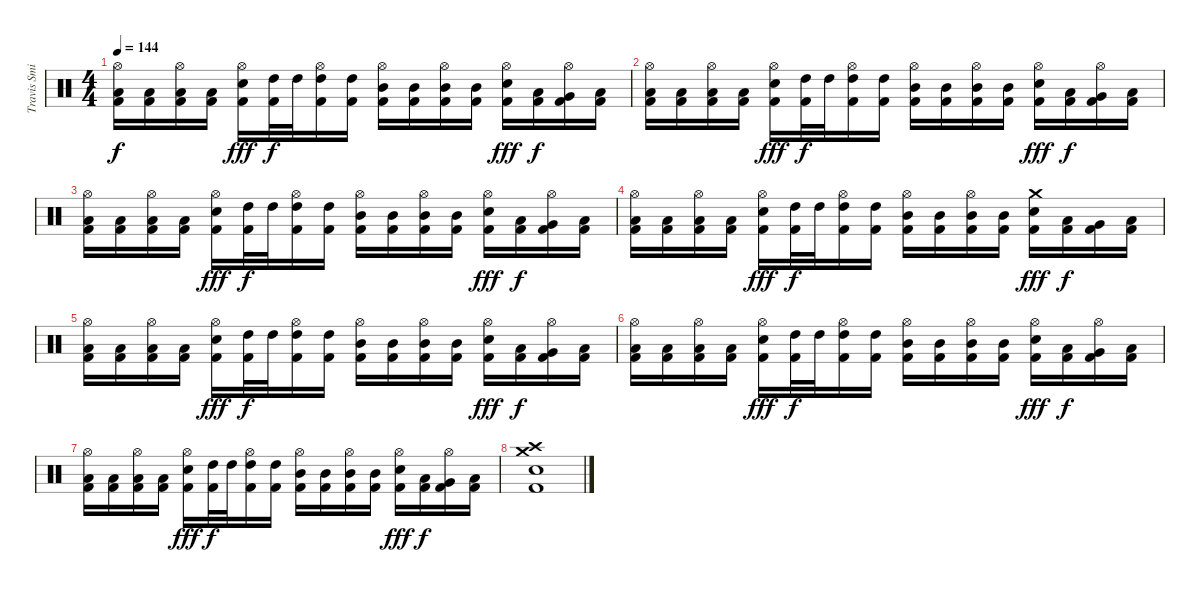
\track ("Travis Smith" "Travis Smi") {instrument percussion}
\staff {score}
\articulation defaults
\ts (4 4)
\tempo 144
\clef neutral
\ks c
("Hi-Hat (open)" "Low Tom (hit)" "Kick (hit) 2").16{dy f} ("Low Tom (hit)" "Kick (hit) 2").16 ("Hi-Hat (open)" "Low Tom (hit)" "Kick (hit) 2").16 ("Low Tom (hit)" "Kick (hit) 2").16 ("Hi-Hat (open)" "Electric Snare (hit)" "Kick (hit) 2").16{dy fff} ("High Tom (hit)" "Kick (hit) 2").32{dy f} "High Tom (hit)".32 ("Hi-Hat (open)" "High Tom (hit)" "Kick (hit) 2").16 ("High Tom (hit)" "Kick (hit) 2").16 ("Hi-Hat (open)" "Mid Tom (hit)" "Kick (hit) 2").16 ("Mid Tom (hit)" "Kick (hit) 2").16 ("Hi-Hat (open)" "Mid Tom (hit)" "Kick (hit) 2").16 ("Mid Tom (hit)" "Kick (hit) 2").16 ("Hi-Hat (open)" "Electric Snare (hit)" "Kick (hit) 2").16{dy fff} ("Low Tom (hit)" "Kick (hit) 2").16{dy f} ("Hi-Hat (open)" "Very Low Tom (hit)" "Kick (hit) 2").16 ("Low Floor Tom (hit)" "Kick (hit) 2").16 |
("Hi-Hat (open)" "Low Tom (hit)" "Kick (hit) 2").16 ("Low Tom (hit)" "Kick (hit) 2").16 ("Hi-Hat (open)" "Low Tom (hit)" "Kick (hit) 2").16 ("Low Tom (hit)" "Kick (hit) 2").16 ("Hi-Hat (open)" "Electric Snare (hit)" "Kick (hit) 2").16{dy fff} ("High Tom (hit)" "Kick (hit) 2").32{dy f} "High Tom (hit)".32 ("Hi-Hat (open)" "High Tom (hit)" "Kick (hit) 2").16 ("High Tom (hit)" "Kick (hit) 2").16 ("Hi-Hat (open)" "Mid Tom (hit)" "Kick (hit) 2").16 ("Mid Tom (hit)" "Kick (hit) 2").16 ("Hi-Hat (open)" "Mid Tom (hit)" "Kick (hit) 2").16 ("Mid Tom (hit)" "Kick (hit) 2").16 ("Hi-Hat (open)" "Electric Snare (hit)" "Kick (hit) 2").16{dy fff} ("Low Tom (hit)" "Kick (hit) 2").16{dy f} ("Hi-Hat (open)" "Very Low Tom (hit)" "Kick (hit) 2").16 ("Low Floor Tom (hit)" "Kick (hit) 2").16 |
("Hi-Hat (open)" "Low Tom (hit)" "Kick (hit) 2").16 ("Low Tom (hit)" "Kick (hit) 2").16 ("Hi-Hat (open)" "Low Tom (hit)" "Kick (hit) 2").16 ("Low Tom (hit)" "Kick (hit) 2").16 ("Hi-Hat (open)" "Electric Snare (hit)" "Kick (hit) 2").16{dy fff} ("High Tom (hit)" "Kick (hit) 2").32{dy f} "High Tom (hit)".32 ("Hi-Hat (open)" "High Tom (hit)" "Kick (hit) 2").16 ("High Tom (hit)" "Kick (hit) 2").16 ("Hi-Hat (open)" "Mid Tom (hit)" "Kick (hit) 2").16 ("Mid Tom (hit)" "Kick (hit) 2").16 ("Hi-Hat (open)" "Mid Tom (hit)" "Kick (hit) 2").16 ("Mid Tom (hit)" "Kick (hit) 2").16 ("Hi-Hat (open)" "Electric Snare (hit)" "Kick (hit) 2").16{dy fff} ("Low Tom (hit)" "Kick (hit) 2").16{dy f} ("Hi-Hat (open)" "Very Low Tom (hit)" "Kick (hit) 2").16 ("Low Floor Tom (hit)" "Kick (hit) 2").16 |
("Hi-Hat (open)" "Low Tom (hit)" "Kick (hit) 2").16 ("Low Tom (hit)" "Kick (hit) 2").16 ("Hi-Hat (open)" "Low Tom (hit)" "Kick (hit) 2").16 ("Low Tom (hit)" "Kick (hit) 2").16 ("Hi-Hat (open)" "Electric Snare (hit)" "Kick (hit) 2").16{dy fff} ("High Tom (hit)" "Kick (hit) 2").32{dy f} "High Tom (hit)".32 ("Hi-Hat (open)" "High Tom (hit)" "Kick (hit) 2").16 ("High Tom (hit)" "Kick (hit) 2").16 ("Hi-Hat (open)" "Mid Tom (hit)" "Kick (hit) 2").16 ("Mid Tom (hit)" "Kick (hit) 2").16 ("Hi-Hat (open)" "Mid Tom (hit)" "Kick (hit) 2").16 ("Mid Tom (hit)" "Kick (hit) 2").16 ("Crash medium (hit)" "Electric Snare (hit)" "Kick (hit) 2").16{dy fff} ("Low Tom (hit)" "Kick (hit) 2").16{dy f} ("Very Low Tom (hit)" "Kick (hit) 2").16 ("Low Floor Tom (hit)" "Kick (hit) 2").16 |
("Hi-Hat (open)" "Low Tom (hit)" "Kick (hit) 2").16 ("Low Tom (hit)" "Kick (hit) 2").16 ("Hi-Hat (open)" "Low Tom (hit)" "Kick (hit) 2").16 ("Low Tom (hit)" "Kick (hit) 2").16 ("Hi-Hat (open)" "Electric Snare (hit)" "Kick (hit) 2").16{dy fff} ("High Tom (hit)" "Kick (hit) 2").32{dy f} "High Tom (hit)".32 ("Hi-Hat (open)" "High Tom (hit)" "Kick (hit) 2").16 ("High Tom (hit)" "Kick (hit) 2").16 ("Hi-Hat (open)" "Mid Tom (hit)" "Kick (hit) 2").16 ("Mid Tom (hit)" "Kick (hit) 2").16 ("Hi-Hat (open)" "Mid Tom (hit)" "Kick (hit) 2").16 ("Mid Tom (hit)" "Kick (hit) 2").16 ("Hi-Hat (open)" "Electric Snare (hit)" "Kick (hit) 2").16{dy fff} ("Low Tom (hit)" "Kick (hit) 2").16{dy f} ("Hi-Hat (open)" "Very Low Tom (hit)" "Kick (hit) 2").16 ("Low Floor Tom (hit)" "Kick (hit) 2").16 |
("Hi-Hat (open)" "Low Tom (hit)" "Kick (hit) 2").16 ("Low Tom (hit)" "Kick (hit) 2").16 ("Hi-Hat (open)" "Low Tom (hit)" "Kick (hit) 2").16 ("Low Tom (hit)" "Kick (hit) 2").16 ("Hi-Hat (open)" "Electric Snare (hit)" "Kick (hit) 2").16{dy fff} ("High Tom (hit)" "Kick (hit) 2").32{dy f} "High Tom (hit)".32 ("Hi-Hat (open)" "High Tom (hit)" "Kick (hit) 2").16 ("High Tom (hit)" "Kick (hit) 2").16 ("Hi-Hat (open)" "Mid Tom (hit)" "Kick (hit) 2").16 ("Mid Tom (hit)" "Kick (hit) 2").16 ("Hi-Hat (open)" "Mid Tom (hit)" "Kick (hit) 2").16 ("Mid Tom (hit)" "Kick (hit) 2").16 ("Hi-Hat (open)" "Electric Snare (hit)" "Kick (hit) 2").16{dy fff} ("Low Tom (hit)" "Kick (hit) 2").16{dy f} ("Hi-Hat (open)" "Very Low Tom (hit)" "Kick (hit) 2").16 ("Low Floor Tom (hit)" "Kick (hit) 2").16 |
("Hi-Hat (open)" "Low Tom (hit)" "Kick (hit) 2").16 ("Low Tom (hit)" "Kick (hit) 2").16 ("Hi-Hat (open)" "Low Tom (hit)" "Kick (hit) 2").16 ("Low Tom (hit)" "Kick (hit) 2").16 ("Hi-Hat (open)" "Electric Snare (hit)" "Kick (hit) 2").16{dy fff} ("High Tom (hit)" "Kick (hit) 2").32{dy f} "High Tom (hit)".32 ("Hi-Hat (open)" "High Tom (hit)" "Kick (hit) 2").16 ("High Tom (hit)" "Kick (hit) 2").16 ("Hi-Hat (open)" "Mid Tom (hit)" "Kick (hit) 2").16 ("Mid Tom (hit)" "Kick (hit) 2").16 ("Hi-Hat (open)" "Mid Tom (hit)" "Kick (hit) 2").16 ("Mid Tom (hit)" "Kick (hit) 2").16 ("Hi-Hat (open)" "Electric Snare (hit)" "Kick (hit) 2").16{dy fff} ("Low Tom (hit)" "Kick (hit) 2").16{dy f} ("Hi-Hat (open)" "Very Low Tom (hit)" "Kick (hit) 2").16 ("Low Floor Tom (hit)" "Kick (hit) 2").16 |
("Crash high (hit)" "Crash medium (hit)" "Electric Snare (hit)" "Kick (hit) 2").1
